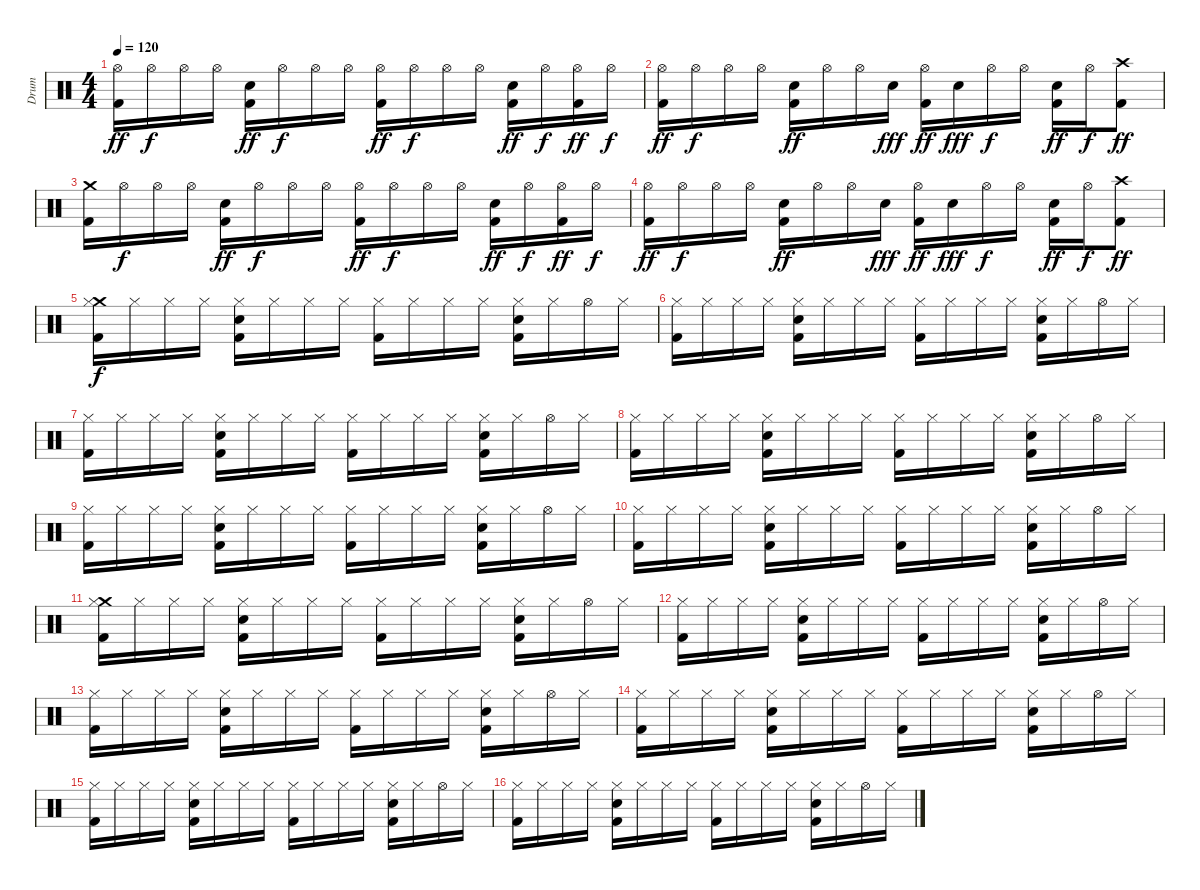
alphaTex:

\track ("Drum" "Drum") {instrument percussion}
\staff {score}
\articulation defaults
\ts (4 4)
\tempo 120
\clef neutral
\ks c
("Hi-Hat (open)" "Kick (hit) 2").16{dy ff} "Hi-Hat (open)".16{dy f} "Hi-Hat (open)".16 "Hi-Hat (open)".16 ("Kick (hit) 2" "Electric Snare (hit)").16{dy ff} "Hi-Hat (open)".16{dy f} "Hi-Hat (open)".16 "Hi-Hat (open)".16 ("Hi-Hat (open)" "Kick (hit) 2").16{dy ff} "Hi-Hat (open)".16{dy f} "Hi-Hat (open)".16 "Hi-Hat (open)".16 ("Kick (hit) 2" "Electric Snare (hit)").16{dy ff} "Hi-Hat (open)".16{dy f} ("Hi-Hat (open)" "Kick (hit) 2").16{dy ff} "Hi-Hat (open)".16{dy f} |
("Hi-Hat (open)" "Kick (hit) 2").16{dy ff} "Hi-Hat (open)".16{dy f} "Hi-Hat (open)".16 "Hi-Hat (open)".16 ("Kick (hit) 2" "Electric Snare (hit)").16{dy ff} "Hi-Hat (open)".16 "Hi-Hat (open)".16 "Electric Snare (hit)".16{dy fff} ("Hi-Hat (open)" "Kick (hit) 2").16{dy ff} "Electric Snare (hit)".16{dy fff} "Hi-Hat (open)".16{dy f} "Hi-Hat (open)".16 ("Kick (hit) 2" "Electric Snare (hit)").16{dy ff} "Hi-Hat (open)".16{dy f} ("Crash high (hit)" "Kick (hit) 2").8{dy ff} |
("Crash medium (hit)" "Kick (hit) 2").16 "Hi-Hat (open)".16{dy f} "Hi-Hat (open)".16 "Hi-Hat (open)".16 ("Kick (hit) 2" "Electric Snare (hit)").16{dy ff} "Hi-Hat (open)".16{dy f} "Hi-Hat (open)".16 "Hi-Hat (open)".16 ("Hi-Hat (open)" "Kick (hit) 2").16{dy ff} "Hi-Hat (open)".16{dy f} "Hi-Hat (open)".16 "Hi-Hat (open)".16 ("Kick (hit) 2" "Electric Snare (hit)").16{dy ff} "Hi-Hat (open)".16{dy f} ("Hi-Hat (open)" "Kick (hit) 2").16{dy ff} "Hi-Hat (open)".16{dy f} |
("Hi-Hat (open)" "Kick (hit) 2").16{dy ff} "Hi-Hat (open)".16{dy f} "Hi-Hat (open)".16 "Hi-Hat (open)".16 ("Kick (hit) 2" "Electric Snare (hit)").16{dy ff} "Hi-Hat (open)".16 "Hi-Hat (open)".16 "Electric Snare (hit)".16{dy fff} ("Hi-Hat (open)" "Kick (hit) 2").16{dy ff} "Electric Snare (hit)".16{dy fff} "Hi-Hat (open)".16{dy f} "Hi-Hat (open)".16 ("Kick (hit) 2" "Electric Snare (hit)").16{dy ff} "Hi-Hat (open)".16{dy f} ("Crash high (hit)" "Kick (hit) 2").8{dy ff} |
("Crash medium (hit)" "Hi-Hat (closed)" "Kick (hit) 2").16{dy f} "Hi-Hat (closed)".16 "Hi-Hat (closed)".16 "Hi-Hat (closed)".16 ("Hi-Hat (closed)" "Kick (hit) 2" "Electric Snare (hit)").16 "Hi-Hat (closed)".16 "Hi-Hat (closed)".16 "Hi-Hat (closed)".16 ("Hi-Hat (closed)" "Kick (hit) 2").16 "Hi-Hat (closed)".16 "Hi-Hat (closed)".16 "Hi-Hat (closed)".16 ("Hi-Hat (closed)" "Kick (hit) 2" "Electric Snare (hit)").16 "Hi-Hat (closed)".16 "Hi-Hat (open)".16 "Hi-Hat (closed)".16 |
("Hi-Hat (closed)" "Kick (hit) 2").16 "Hi-Hat (closed)".16 "Hi-Hat (closed)".16 "Hi-Hat (closed)".16 ("Hi-Hat (closed)" "Kick (hit) 2" "Electric Snare (hit)").16 "Hi-Hat (closed)".16 "Hi-Hat (closed)".16 "Hi-Hat (closed)".16 ("Hi-Hat (closed)" "Kick (hit) 2").16 "Hi-Hat (closed)".16 "Hi-Hat (closed)".16 "Hi-Hat (closed)".16 ("Hi-Hat (closed)" "Kick (hit) 2" "Electric Snare (hit)").16 "Hi-Hat (closed)".16 "Hi-Hat (open)".16 "Hi-Hat (closed)".16 |
("Hi-Hat (closed)" "Kick (hit) 2").16 "Hi-Hat (closed)".16 "Hi-Hat (closed)".16 "Hi-Hat (closed)".16 ("Hi-Hat (closed)" "Kick (hit) 2" "Electric Snare (hit)").16 "Hi-Hat (closed)".16 "Hi-Hat (closed)".16 "Hi-Hat (closed)".16 ("Hi-Hat (closed)" "Kick (hit) 2").16 "Hi-Hat (closed)".16 "Hi-Hat (closed)".16 "Hi-Hat (closed)".16 ("Hi-Hat (closed)" "Kick (hit) 2" "Electric Snare (hit)").16 "Hi-Hat (closed)".16 "Hi-Hat (open)".16 "Hi-Hat (closed)".16 |
("Hi-Hat (closed)" "Kick (hit) 2").16 "Hi-Hat (closed)".16 "Hi-Hat (closed)".16 "Hi-Hat (closed)".16 ("Hi-Hat (closed)" "Kick (hit) 2" "Electric Snare (hit)").16 "Hi-Hat (closed)".16 "Hi-Hat (closed)".16 "Hi-Hat (closed)".16 ("Hi-Hat (closed)" "Kick (hit) 2").16 "Hi-Hat (closed)".16 "Hi-Hat (closed)".16 "Hi-Hat (closed)".16 ("Hi-Hat (closed)" "Kick (hit) 2" "Electric Snare (hit)").16 "Hi-Hat (closed)".16 "Hi-Hat (open)".16 "Hi-Hat (closed)".16 |
("Hi-Hat (closed)" "Kick (hit) 2").16 "Hi-Hat (closed)".16 "Hi-Hat (closed)".16 "Hi-Hat (closed)".16 ("Hi-Hat (closed)" "Kick (hit) 2" "Electric Snare (hit)").16 "Hi-Hat (closed)".16 "Hi-Hat (closed)".16 "Hi-Hat (closed)".16 ("Hi-Hat (closed)" "Kick (hit) 2").16 "Hi-Hat (closed)".16 "Hi-Hat (closed)".16 "Hi-Hat (closed)".16 ("Hi-Hat (closed)" "Kick (hit) 2" "Electric Snare (hit)").16 "Hi-Hat (closed)".16 "Hi-Hat (open)".16 "Hi-Hat (closed)".16 |
("Hi-Hat (closed)" "Kick (hit) 2").16 "Hi-Hat (closed)".16 "Hi-Hat (closed)".16 "Hi-Hat (closed)".16 ("Hi-Hat (closed)" "Kick (hit) 2" "Electric Snare (hit)").16 "Hi-Hat (closed)".16 "Hi-Hat (closed)".16 "Hi-Hat (closed)".16 ("Hi-Hat (closed)" "Kick (hit) 2").16 "Hi-Hat (closed)".16 "Hi-Hat (closed)".16 "Hi-Hat (closed)".16 ("Hi-Hat (closed)" "Kick (hit) 2" "Electric Snare (hit)").16 "Hi-Hat (closed)".16 "Hi-Hat (open)".16 "Hi-Hat (closed)".16 |
("Crash medium (hit)" "Hi-Hat (closed)" "Kick (hit) 2").16 "Hi-Hat (closed)".16 "Hi-Hat (closed)".16 "Hi-Hat (closed)".16 ("Hi-Hat (closed)" "Kick (hit) 2" "Electric Snare (hit)").16 "Hi-Hat (closed)".16 "Hi-Hat (closed)".16 "Hi-Hat (closed)".16 ("Hi-Hat (closed)" "Kick (hit) 2").16 "Hi-Hat (closed)".16 "Hi-Hat (closed)".16 "Hi-Hat (closed)".16 ("Hi-Hat (closed)" "Kick (hit) 2" "Electric Snare (hit)").16 "Hi-Hat (closed)".16 "Hi-Hat (open)".16 "Hi-Hat (closed)".16 |
("Hi-Hat (closed)" "Kick (hit) 2").16 "Hi-Hat (closed)".16 "Hi-Hat (closed)".16 "Hi-Hat (closed)".16 ("Hi-Hat (closed)" "Kick (hit) 2" "Electric Snare (hit)").16 "Hi-Hat (closed)".16 "Hi-Hat (closed)".16 "Hi-Hat (closed)".16 ("Hi-Hat (closed)" "Kick (hit) 2").16 "Hi-Hat (closed)".16 "Hi-Hat (closed)".16 "Hi-Hat (closed)".16 ("Hi-Hat (closed)" "Kick (hit) 2" "Electric Snare (hit)").16 "Hi-Hat (closed)".16 "Hi-Hat (open)".16 "Hi-Hat (closed)".16 |
("Hi-Hat (closed)" "Kick (hit) 2").16 "Hi-Hat (closed)".16 "Hi-Hat (closed)".16 "Hi-Hat (closed)".16 ("Hi-Hat (closed)" "Kick (hit) 2" "Electric Snare (hit)").16 "Hi-Hat (closed)".16 "Hi-Hat (closed)".16 "Hi-Hat (closed)".16 ("Hi-Hat (closed)" "Kick (hit) 2").16 "Hi-Hat (closed)".16 "Hi-Hat (closed)".16 "Hi-Hat (closed)".16 ("Hi-Hat (closed)" "Kick (hit) 2" "Electric Snare (hit)").16 "Hi-Hat (closed)".16 "Hi-Hat (open)".16 "Hi-Hat (closed)".16 |
("Hi-Hat (closed)" "Kick (hit) 2").16 "Hi-Hat (closed)".16 "Hi-Hat (closed)".16 "Hi-Hat (closed)".16 ("Hi-Hat (closed)" "Kick (hit) 2" "Electric Snare (hit)").16 "Hi-Hat (closed)".16 "Hi-Hat (closed)".16 "Hi-Hat (closed)".16 ("Hi-Hat (closed)" "Kick (hit) 2").16 "Hi-Hat (closed)".16 "Hi-Hat (closed)".16 "Hi-Hat (closed)".16 ("Hi-Hat (closed)" "Kick (hit) 2" "Electric Snare (hit)").16 "Hi-Hat (closed)".16 "Hi-Hat (open)".16 "Hi-Hat (closed)".16 |
("Hi-Hat (closed)" "Kick (hit) 2").16 "Hi-Hat (closed)".16 "Hi-Hat (closed)".16 "Hi-Hat (closed)".16 ("Hi-Hat (closed)" "Kick (hit) 2" "Electric Snare (hit)").16 "Hi-Hat (closed)".16 "Hi-Hat (closed)".16 "Hi-Hat (closed)".16 ("Hi-Hat (closed)" "Kick (hit) 2").16 "Hi-Hat (closed)".16 "Hi-Hat (closed)".16 "Hi-Hat (closed)".16 ("Hi-Hat (closed)" "Kick (hit) 2" "Electric Snare (hit)").16 "Hi-Hat (closed)".16 "Hi-Hat (open)".16 "Hi-Hat (closed)".16 |
("Hi-Hat (closed)" "Kick (hit) 2").16 "Hi-Hat (closed)".16 "Hi-Hat (closed)".16 "Hi-Hat (closed)".16 ("Hi-Hat (closed)" "Kick (hit) 2" "Electric Snare (hit)").16 "Hi-Hat (closed)".16 "Hi-Hat (closed)".16 "Hi-Hat (closed)".16 ("Hi-Hat (closed)" "Kick (hit) 2").16 "Hi-Hat (closed)".16 "Hi-Hat (closed)".16 "Hi-Hat (closed)".16 ("Hi-Hat (closed)" "Kick (hit) 2" "Electric Snare (hit)").16 "Hi-Hat (closed)".16 "Hi-Hat (open)".16 "Hi-Hat (closed)".16
